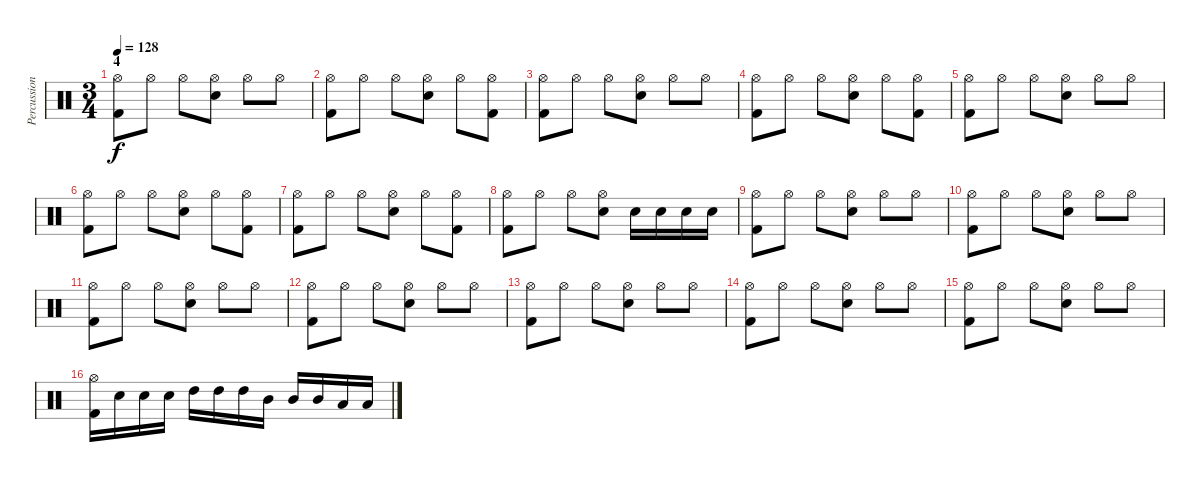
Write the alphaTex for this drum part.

\track ("Percussion" "Percussion") {instrument percussion}
\staff {score}
\articulation defaults
\ts (3 4)
\section ("" "4")
\tempo 128
\clef neutral
\ks c
("Hi-Hat (open)" "Kick (hit) 2").8{dy f} "Hi-Hat (open)".8 "Hi-Hat (open)".8 ("Hi-Hat (open)" "Electric Snare (hit)").8 "Hi-Hat (open)".8 "Hi-Hat (open)".8 |
("Hi-Hat (open)" "Kick (hit) 2").8 "Hi-Hat (open)".8 "Hi-Hat (open)".8 ("Hi-Hat (open)" "Electric Snare (hit)").8 "Hi-Hat (open)".8 ("Hi-Hat (open)" "Kick (hit) 2").8 |
("Hi-Hat (open)" "Kick (hit) 2").8 "Hi-Hat (open)".8 "Hi-Hat (open)".8 ("Hi-Hat (open)" "Electric Snare (hit)").8 "Hi-Hat (open)".8 "Hi-Hat (open)".8 |
("Hi-Hat (open)" "Kick (hit) 2").8 "Hi-Hat (open)".8 "Hi-Hat (open)".8 ("Hi-Hat (open)" "Electric Snare (hit)").8 "Hi-Hat (open)".8 ("Hi-Hat (open)" "Kick (hit) 2").8 |
("Hi-Hat (open)" "Kick (hit) 2").8 "Hi-Hat (open)".8 "Hi-Hat (open)".8 ("Hi-Hat (open)" "Electric Snare (hit)").8 "Hi-Hat (open)".8 "Hi-Hat (open)".8 |
("Hi-Hat (open)" "Kick (hit) 2").8 "Hi-Hat (open)".8 "Hi-Hat (open)".8 ("Hi-Hat (open)" "Electric Snare (hit)").8 "Hi-Hat (open)".8 ("Hi-Hat (open)" "Kick (hit) 2").8 |
("Hi-Hat (open)" "Kick (hit) 2").8 "Hi-Hat (open)".8 "Hi-Hat (open)".8 ("Hi-Hat (open)" "Electric Snare (hit)").8 "Hi-Hat (open)".8 ("Hi-Hat (open)" "Kick (hit) 2").8 |
("Hi-Hat (open)" "Kick (hit) 2").8 "Hi-Hat (open)".8 "Hi-Hat (open)".8 ("Hi-Hat (open)" "Electric Snare (hit)").8 "Electric Snare (hit)".16 "Electric Snare (hit)".16 "Electric Snare (hit)".16 "Electric Snare (hit)".16 |
("Hi-Hat (open)" "Kick (hit) 2").8 "Hi-Hat (open)".8 "Hi-Hat (open)".8 ("Hi-Hat (open)" "Electric Snare (hit)").8 "Hi-Hat (open)".8 "Hi-Hat (open)".8 |
("Hi-Hat (open)" "Kick (hit) 2").8 "Hi-Hat (open)".8 "Hi-Hat (open)".8 ("Hi-Hat (open)" "Electric Snare (hit)").8 "Hi-Hat (open)".8 "Hi-Hat (open)".8 |
("Hi-Hat (open)" "Kick (hit) 2").8 "Hi-Hat (open)".8 "Hi-Hat (open)".8 ("Hi-Hat (open)" "Electric Snare (hit)").8 "Hi-Hat (open)".8 "Hi-Hat (open)".8 |
("Hi-Hat (open)" "Kick (hit) 2").8 "Hi-Hat (open)".8 "Hi-Hat (open)".8 ("Hi-Hat (open)" "Electric Snare (hit)").8 "Hi-Hat (open)".8 "Hi-Hat (open)".8 |
("Hi-Hat (open)" "Kick (hit) 2").8 "Hi-Hat (open)".8 "Hi-Hat (open)".8 ("Hi-Hat (open)" "Electric Snare (hit)").8 "Hi-Hat (open)".8 "Hi-Hat (open)".8 |
("Hi-Hat (open)" "Kick (hit) 2").8 "Hi-Hat (open)".8 "Hi-Hat (open)".8 ("Hi-Hat (open)" "Electric Snare (hit)").8 "Hi-Hat (open)".8 "Hi-Hat (open)".8 |
("Hi-Hat (open)" "Kick (hit) 2").8 "Hi-Hat (open)".8 "Hi-Hat (open)".8 ("Hi-Hat (open)" "Electric Snare (hit)").8 "Hi-Hat (open)".8 "Hi-Hat (open)".8 |
("Hi-Hat (open)" "Kick (hit) 2").16 "Electric Snare (hit)".16 "Electric Snare (hit)".16 "Electric Snare (hit)".16 "High Tom (hit)".16 "High Tom (hit)".16 "High Tom (hit)".16 "Mid Tom (hit)".16 "Mid Tom (hit)".16 "Mid Tom (hit)".16 "Low Tom (hit)".16 "Low Tom (hit)".16
